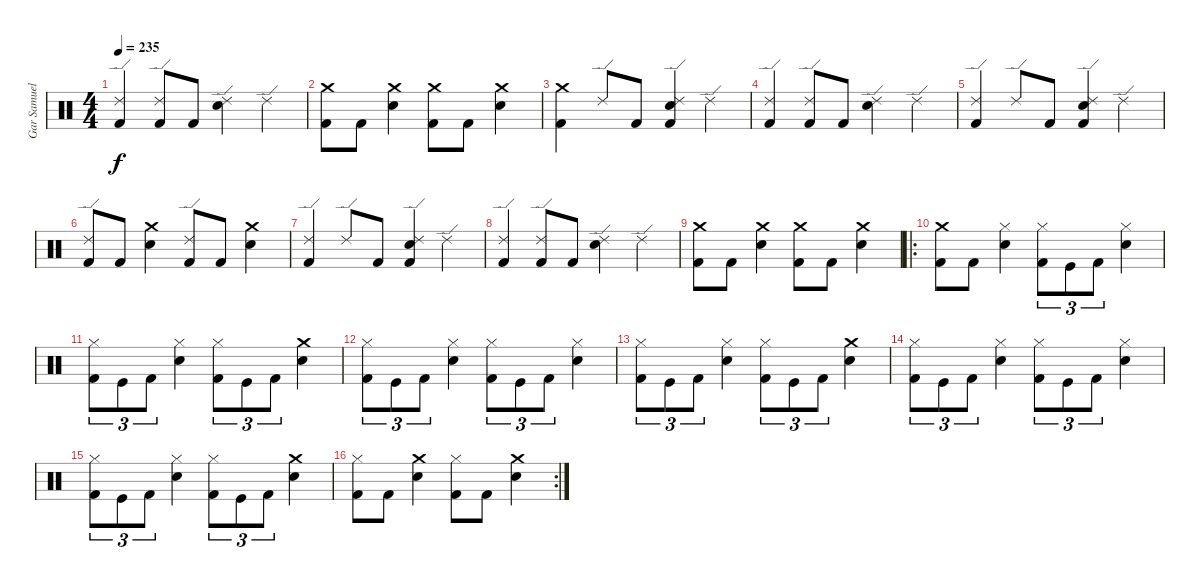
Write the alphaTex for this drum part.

\track ("Gar Samuelson (Drums)" "Gar Samuel") {instrument percussion}
\staff {score}
\articulation defaults
\ts (4 4)
\tempo 235
\clef neutral
\ks c
("Kick (hit) 2" "Ride (edge) 2").4{dy f} ("Ride (edge) 2" "Kick (hit) 2").8 "Kick (hit) 2".8 ("Snare (hit) 2" "Ride (edge) 2").4 "Ride (edge) 2".4 |
("Kick (hit) 2" "Crash medium (hit)").8 "Kick (hit) 2".8 ("Snare (hit) 2" "Crash medium (hit)").4 ("Kick (hit) 2" "Crash medium (hit)").8 "Kick (hit) 2".8 ("Snare (hit) 2" "Crash medium (hit)").4 |
("Kick (hit) 2" "Crash medium (hit)").4 "Ride (edge) 2".8 "Kick (hit) 2".8 ("Kick (hit) 2" "Snare (hit) 2" "Ride (edge) 2").4 "Ride (edge) 2".4 |
("Kick (hit) 2" "Ride (edge) 2").4 ("Ride (edge) 2" "Kick (hit) 2").8 "Kick (hit) 2".8 ("Snare (hit) 2" "Ride (edge) 2").4 "Ride (edge) 2".4 |
("Kick (hit) 2" "Ride (edge) 2").4 "Ride (edge) 2".8 "Kick (hit) 2".8 ("Ride (edge) 2" "Snare (hit) 2" "Kick (hit) 2").4 "Ride (edge) 2".4 |
("Ride (edge) 2" "Kick (hit) 2").8 "Kick (hit) 2".8 ("Snare (hit) 2" "Crash medium (hit)").4 ("Ride (edge) 2" "Kick (hit) 2").8 "Kick (hit) 2".8 ("Snare (hit) 2" "Crash medium (hit)").4 |
("Ride (edge) 2" "Kick (hit) 2").4 "Ride (edge) 2".8 "Kick (hit) 2".8 ("Ride (edge) 2" "Snare (hit) 2" "Kick (hit) 2").4 "Ride (edge) 2".4 |
("Kick (hit) 2" "Ride (edge) 2").4 ("Ride (edge) 2" "Kick (hit) 2").8 "Kick (hit) 2".8 ("Snare (hit) 2" "Ride (edge) 2").4 "Ride (edge) 2".4 |
("Kick (hit) 2" "Crash medium (hit)").8 "Kick (hit) 2".8 ("Snare (hit) 2" "Crash medium (hit)").4 ("Kick (hit) 2" "Crash medium (hit)").8 "Kick (hit) 2".8 ("Snare (hit) 2" "Crash medium (hit)").4 |
\ro
("Crash medium (hit)" "Kick (hit) 2").8 "Kick (hit) 2".8 ("Snare (hit) 2" "Hi-Hat (closed)").4 ("Hi-Hat (closed)" "Kick (hit) 2").8{tu (3 2)} "Kick (hit)".8{tu (3 2)} "Kick (hit) 2".8{tu (3 2)} ("Hi-Hat (closed)" "Snare (hit) 2").4 |
("Hi-Hat (closed)" "Kick (hit) 2").8{tu (3 2)} "Kick (hit)".8{tu (3 2)} "Kick (hit) 2".8{tu (3 2)} ("Snare (hit) 2" "Hi-Hat (closed)").4 ("Hi-Hat (closed)" "Kick (hit) 2").8{tu (3 2)} "Kick (hit)".8{tu (3 2)} "Kick (hit) 2".8{tu (3 2)} ("Crash medium (hit)" "Snare (hit) 2").4 |
("Hi-Hat (closed)" "Kick (hit) 2").8{tu (3 2)} "Kick (hit)".8{tu (3 2)} "Kick (hit) 2".8{tu (3 2)} ("Snare (hit) 2" "Hi-Hat (closed)").4 ("Hi-Hat (closed)" "Kick (hit) 2").8{tu (3 2)} "Kick (hit)".8{tu (3 2)} "Kick (hit) 2".8{tu (3 2)} ("Hi-Hat (closed)" "Snare (hit) 2").4 |
("Hi-Hat (closed)" "Kick (hit) 2").8{tu (3 2)} "Kick (hit)".8{tu (3 2)} "Kick (hit) 2".8{tu (3 2)} ("Snare (hit) 2" "Hi-Hat (closed)").4 ("Hi-Hat (closed)" "Kick (hit) 2").8{tu (3 2)} "Kick (hit)".8{tu (3 2)} "Kick (hit) 2".8{tu (3 2)} ("Crash medium (hit)" "Snare (hit) 2").4 |
("Hi-Hat (closed)" "Kick (hit) 2").8{tu (3 2)} "Kick (hit)".8{tu (3 2)} "Kick (hit) 2".8{tu (3 2)} ("Snare (hit) 2" "Hi-Hat (closed)").4 ("Hi-Hat (closed)" "Kick (hit) 2").8{tu (3 2)} "Kick (hit)".8{tu (3 2)} "Kick (hit) 2".8{tu (3 2)} ("Hi-Hat (closed)" "Snare (hit) 2").4 |
("Hi-Hat (closed)" "Kick (hit) 2").8{tu (3 2)} "Kick (hit)".8{tu (3 2)} "Kick (hit) 2".8{tu (3 2)} ("Snare (hit) 2" "Hi-Hat (closed)").4 ("Hi-Hat (closed)" "Kick (hit) 2").8{tu (3 2)} "Kick (hit)".8{tu (3 2)} "Kick (hit) 2".8{tu (3 2)} ("Crash medium (hit)" "Snare (hit) 2").4 |
\rc 2
("Kick (hit) 2" "Hi-Hat (closed)").8 "Kick (hit) 2".8 ("Crash medium (hit)" "Snare (hit) 2").4 ("Kick (hit) 2" "Hi-Hat (closed)").8 "Kick (hit) 2".8 ("Crash medium (hit)" "Snare (hit) 2").4
